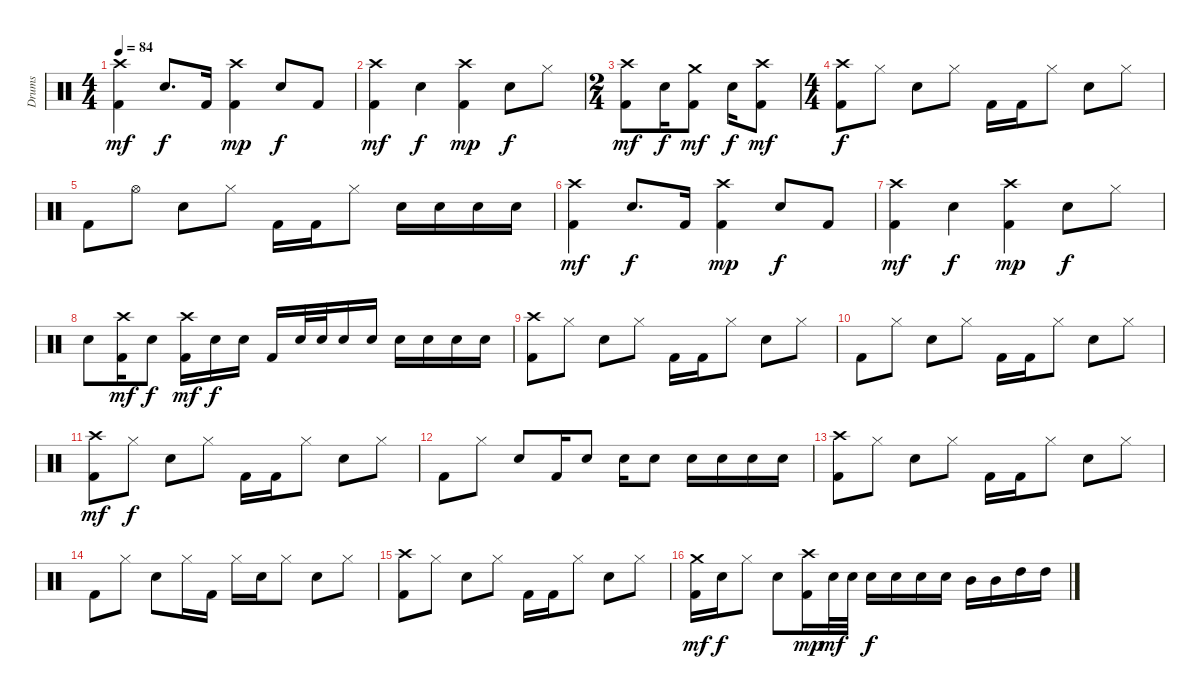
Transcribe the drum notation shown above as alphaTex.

\track ("Drums" "Drums") {instrument percussion}
\staff {score}
\articulation defaults
\ts (4 4)
\tempo 84
\clef neutral
\ks c
("Kick (hit) 2" "Crash high (hit)").4{dy mf} "Snare (hit) 2".8{d dy f} "Kick (hit) 2".16 ("Kick (hit) 2" "Crash high (hit)").4{dy mp} "Snare (hit) 2".8{dy f} "Kick (hit) 2".8 |
("Kick (hit) 2" "Crash high (hit)").4{dy mf} "Snare (hit) 2".4{dy f} ("Kick (hit) 2" "Crash high (hit)").4{dy mp} "Snare (hit) 2".8{dy f} "Hi-Hat (closed)".8 |
\ts (2 4)
("Kick (hit) 2" "Crash high (hit)").8{dy mf} "Snare (hit) 2".16{dy f} ("Kick (hit) 2" "Crash medium (hit)").8{dy mf} "Snare (hit) 2".16{dy f} ("Kick (hit) 2" "Crash high (hit)").8{dy mf} |
\ts (4 4)
("Kick (hit) 2" "Crash high (hit)").8{dy f} "Hi-Hat (closed)".8 "Snare (hit) 2".8 "Hi-Hat (closed)".8 "Kick (hit) 2".16 "Kick (hit) 2".16 "Hi-Hat (closed)".8 "Snare (hit) 2".8 "Hi-Hat (closed)".8 |
"Kick (hit) 2".8 "Hi-Hat (open)".8 "Snare (hit) 2".8 "Hi-Hat (closed)".8 "Kick (hit) 2".16 "Kick (hit) 2".16 "Hi-Hat (closed)".8 "Snare (hit) 2".16 "Snare (hit) 2".16 "Snare (hit) 2".16 "Snare (hit) 2".16 |
("Kick (hit) 2" "Crash high (hit)").4{dy mf} "Snare (hit) 2".8{d dy f} "Kick (hit) 2".16 ("Kick (hit) 2" "Crash high (hit)").4{dy mp} "Snare (hit) 2".8{dy f} "Kick (hit) 2".8 |
("Kick (hit) 2" "Crash high (hit)").4{dy mf} "Snare (hit) 2".4{dy f} ("Kick (hit) 2" "Crash high (hit)").4{dy mp} "Snare (hit) 2".8{dy f} "Hi-Hat (closed)".8 |
"Snare (hit) 2".8 ("Kick (hit) 2" "Crash high (hit)").16{dy mf} "Snare (hit) 2".8{dy f} ("Kick (hit) 2" "Crash high (hit)").16{dy mf} "Snare (hit) 2".16{dy f} "Snare (hit) 2".16 "Kick (hit) 2".16 "Snare (hit) 2".32 "Snare (hit) 2".32 "Snare (hit) 2".16 "Snare (hit) 2".16 "Snare (hit) 2".16 "Snare (hit) 2".16 "Snare (hit) 2".16 "Snare (hit) 2".16 |
("Kick (hit) 2" "Crash high (hit)").8 "Hi-Hat (closed)".8 "Snare (hit) 2".8 "Hi-Hat (closed)".8 "Kick (hit) 2".16 "Kick (hit) 2".16 "Hi-Hat (closed)".8 "Snare (hit) 2".8 "Hi-Hat (closed)".8 |
"Kick (hit) 2".8 "Hi-Hat (closed)".8 "Snare (hit) 2".8 "Hi-Hat (closed)".8 "Kick (hit) 2".16 "Kick (hit) 2".16 "Hi-Hat (closed)".8 "Snare (hit) 2".8 "Hi-Hat (closed)".8 |
("Kick (hit) 2" "Crash high (hit)").8{dy mf} "Hi-Hat (closed)".8{dy f} "Snare (hit) 2".8 "Hi-Hat (closed)".8 "Kick (hit) 2".16 "Kick (hit) 2".16 "Hi-Hat (closed)".8 "Snare (hit) 2".8 "Hi-Hat (closed)".8 |
"Kick (hit) 2".8 "Hi-Hat (closed)".8 "Snare (hit) 2".8 "Kick (hit) 2".16 "Snare (hit) 2".8 "Snare (hit) 2".16 "Snare (hit) 2".8 "Snare (hit) 2".16 "Snare (hit) 2".16 "Snare (hit) 2".16 "Snare (hit) 2".16 |
("Kick (hit) 2" "Crash high (hit)").8 "Hi-Hat (closed)".8 "Snare (hit) 2".8 "Hi-Hat (closed)".8 "Kick (hit) 2".16 "Kick (hit) 2".16 "Hi-Hat (closed)".8 "Snare (hit) 2".8 "Hi-Hat (closed)".8 |
"Kick (hit) 2".8 "Hi-Hat (closed)".8 "Snare (hit) 2".8 "Hi-Hat (closed)".16 "Kick (hit) 2".16 "Hi-Hat (closed)".16 "Snare (hit) 2".16 "Hi-Hat (closed)".8 "Snare (hit) 2".8 "Hi-Hat (closed)".8 |
("Kick (hit) 2" "Crash high (hit)").8 "Hi-Hat (closed)".8 "Snare (hit) 2".8 "Hi-Hat (closed)".8 "Kick (hit) 2".16 "Kick (hit) 2".16 "Hi-Hat (closed)".8 "Snare (hit) 2".8 "Hi-Hat (closed)".8 |
("Kick (hit) 2" "Crash medium (hit)").16{dy mf} "Snare (hit) 2".16{dy f} "Hi-Hat (closed)".8 "Snare (hit) 2".8 ("Kick (hit) 2" "Crash high (hit)").16{dy mp} "Snare (hit) 2".32{dy mf} "Snare (hit) 2".32 "Snare (hit) 2".16{dy f} "Snare (hit) 2".16 "Snare (hit) 2".16 "Snare (hit) 2".16 "Mid Tom (hit)".16 "Mid Tom (hit)".16 "High Tom (hit)".16 "High Tom (hit)".16
